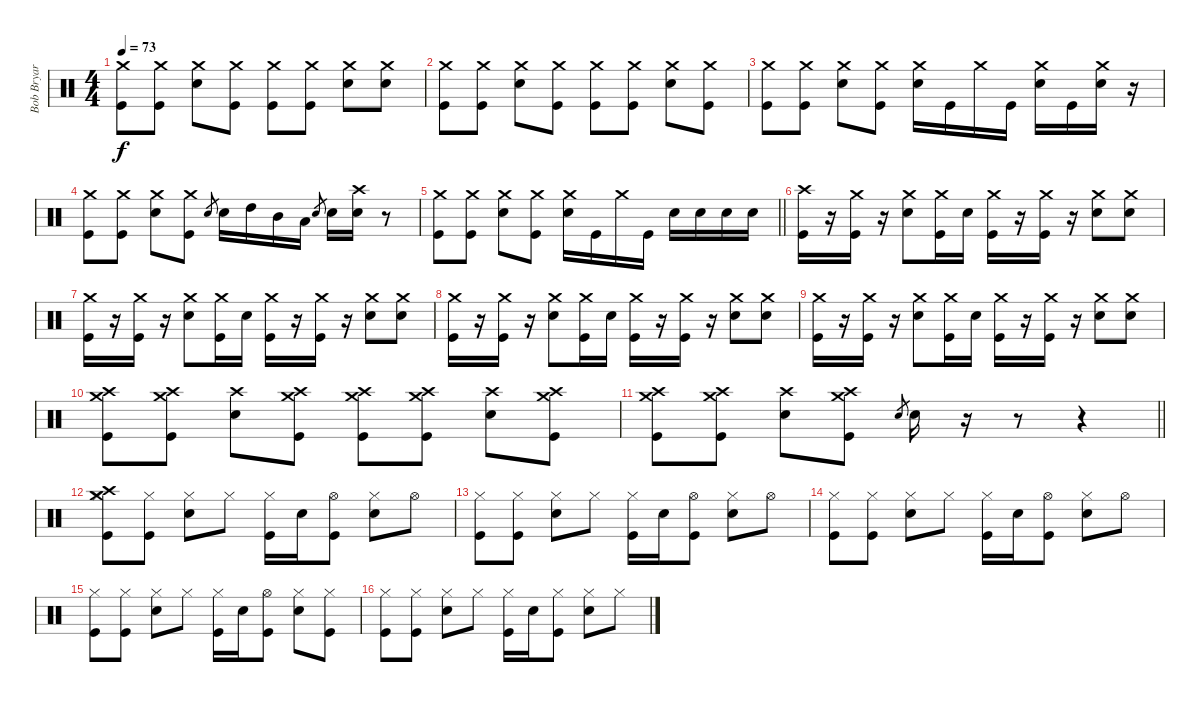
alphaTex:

\track ("Bob Bryar [Drums]" "Bob Bryar ") {instrument percussion}
\staff {score}
\articulation defaults
\ts (4 4)
\tempo 73
\clef neutral
\ks c
("Crash medium (hit)" "Kick (hit)").8{dy f} ("Crash medium (hit)" "Kick (hit)").8 ("Crash medium (hit)" "Snare (hit) 2").8 ("Crash medium (hit)" "Kick (hit)").8 ("Crash medium (hit)" "Kick (hit)").8 ("Crash medium (hit)" "Kick (hit)").8 ("Crash medium (hit)" "Snare (hit) 2").8 ("Crash medium (hit)" "Snare (hit) 2").8 |
("Crash medium (hit)" "Kick (hit)").8 ("Crash medium (hit)" "Kick (hit)").8 ("Crash medium (hit)" "Snare (hit) 2").8 ("Crash medium (hit)" "Kick (hit)").8 ("Crash medium (hit)" "Kick (hit)").8 ("Crash medium (hit)" "Kick (hit)").8 ("Crash medium (hit)" "Snare (hit) 2").8 ("Crash medium (hit)" "Kick (hit)").8 |
("Crash medium (hit)" "Kick (hit)").8 ("Crash medium (hit)" "Kick (hit)").8 ("Crash medium (hit)" "Snare (hit) 2").8 ("Crash medium (hit)" "Kick (hit)").8 ("Crash medium (hit)" "Snare (hit) 2").16 "Kick (hit)".16 "Crash medium (hit)".16 "Kick (hit)".16 ("Crash medium (hit)" "Snare (hit) 2").16 "Kick (hit)".16 ("Crash medium (hit)" "Snare (hit) 2").16 r.16 |
("Crash medium (hit)" "Kick (hit)").8 ("Crash medium (hit)" "Kick (hit)").8 ("Crash medium (hit)" "Snare (hit) 2").8 ("Crash medium (hit)" "Kick (hit)").8 "Snare (hit) 2".8{gr} "Snare (hit) 2".16 "High Tom (hit)".16 "Mid Tom (hit)".16 "Low Tom (hit)".16 "Snare (hit) 2".8{gr} "Snare (hit) 2".16 ("Crash high (hit)" "Snare (hit) 2").16 r.8 |
\barLineRight lightlight
("Crash medium (hit)" "Kick (hit)").8 ("Crash medium (hit)" "Kick (hit)").8 ("Crash medium (hit)" "Snare (hit) 2").8 ("Crash medium (hit)" "Kick (hit)").8 ("Crash medium (hit)" "Snare (hit) 2").16 "Kick (hit)".16 "Crash medium (hit)".16 "Kick (hit)".16 "Snare (hit) 2".16 "Snare (hit) 2".16 "Snare (hit) 2".16 "Snare (hit) 2".16 |
("Crash high (hit)" "Kick (hit)").16 r.16 ("Crash medium (hit)" "Kick (hit)").16 r.16 ("Crash medium (hit)" "Snare (hit) 2").8 ("Crash medium (hit)" "Kick (hit)").16 "Snare (hit) 2".16 ("Crash medium (hit)" "Kick (hit)").16 r.16 ("Crash medium (hit)" "Kick (hit)").16 r.16 ("Crash medium (hit)" "Snare (hit) 2").8 ("Crash medium (hit)" "Snare (hit) 2").8 |
("Crash medium (hit)" "Kick (hit)").16 r.16 ("Crash medium (hit)" "Kick (hit)").16 r.16 ("Crash medium (hit)" "Snare (hit) 2").8 ("Crash medium (hit)" "Kick (hit)").16 "Snare (hit) 2".16 ("Crash medium (hit)" "Kick (hit)").16 r.16 ("Crash medium (hit)" "Kick (hit)").16 r.16 ("Crash medium (hit)" "Snare (hit) 2").8 ("Crash medium (hit)" "Snare (hit) 2").8 |
("Crash medium (hit)" "Kick (hit)").16 r.16 ("Crash medium (hit)" "Kick (hit)").16 r.16 ("Crash medium (hit)" "Snare (hit) 2").8 ("Crash medium (hit)" "Kick (hit)").16 "Snare (hit) 2".16 ("Crash medium (hit)" "Kick (hit)").16 r.16 ("Crash medium (hit)" "Kick (hit)").16 r.16 ("Crash medium (hit)" "Snare (hit) 2").8 ("Crash medium (hit)" "Snare (hit) 2").8 |
("Crash medium (hit)" "Kick (hit)").16 r.16 ("Crash medium (hit)" "Kick (hit)").16 r.16 ("Crash medium (hit)" "Snare (hit) 2").8 ("Crash medium (hit)" "Kick (hit)").16 "Snare (hit) 2".16 ("Crash medium (hit)" "Kick (hit)").16 r.16 ("Crash medium (hit)" "Kick (hit)").16 r.16 ("Crash medium (hit)" "Snare (hit) 2").8 ("Crash medium (hit)" "Snare (hit) 2").8 |
("Crash high (hit)" "Crash medium (hit)" "Kick (hit)").8 ("Crash high (hit)" "Crash medium (hit)" "Kick (hit)").8 ("Crash high (hit)" "Snare (hit) 2").8 ("Crash high (hit)" "Crash medium (hit)" "Kick (hit)").8 ("Crash high (hit)" "Crash medium (hit)" "Kick (hit)").8 ("Crash high (hit)" "Crash medium (hit)" "Kick (hit)").8 ("Crash high (hit)" "Snare (hit) 2").8 ("Crash high (hit)" "Crash medium (hit)" "Kick (hit)").8 |
\barLineRight lightlight
("Crash high (hit)" "Crash medium (hit)" "Kick (hit)").8 ("Crash high (hit)" "Crash medium (hit)" "Kick (hit)").8 ("Crash high (hit)" "Snare (hit) 2").8 ("Crash high (hit)" "Crash medium (hit)" "Kick (hit)").8 "Snare (hit) 2".8{gr} "Snare (hit) 2".16 r.16 r.8 r.4 |
("Crash high (hit)" "Crash medium (hit)" "Hi-Hat (closed)" "Kick (hit)").8 ("Hi-Hat (closed)" "Kick (hit)").8 ("Hi-Hat (closed)" "Snare (hit) 2").8 "Hi-Hat (closed)".8 ("Hi-Hat (closed)" "Kick (hit)").16 "Snare (hit) 2".16 ("Hi-Hat (open)" "Kick (hit)").8 ("Hi-Hat (closed)" "Snare (hit) 2").8 "Hi-Hat (open)".8 |
("Hi-Hat (closed)" "Kick (hit)").8 ("Hi-Hat (closed)" "Kick (hit)").8 ("Hi-Hat (closed)" "Snare (hit) 2").8 "Hi-Hat (closed)".8 ("Hi-Hat (closed)" "Kick (hit)").16 "Snare (hit) 2".16 ("Hi-Hat (open)" "Kick (hit)").8 ("Hi-Hat (closed)" "Snare (hit) 2").8 "Hi-Hat (open)".8 |
("Hi-Hat (closed)" "Kick (hit)").8 ("Hi-Hat (closed)" "Kick (hit)").8 ("Hi-Hat (closed)" "Snare (hit) 2").8 "Hi-Hat (closed)".8 ("Hi-Hat (closed)" "Kick (hit)").16 "Snare (hit) 2".16 ("Hi-Hat (open)" "Kick (hit)").8 ("Hi-Hat (closed)" "Snare (hit) 2").8 "Hi-Hat (open)".8 |
("Hi-Hat (closed)" "Kick (hit)").8 ("Hi-Hat (closed)" "Kick (hit)").8 ("Hi-Hat (closed)" "Snare (hit) 2").8 "Hi-Hat (closed)".8 ("Hi-Hat (closed)" "Kick (hit)").16 "Snare (hit) 2".16 ("Hi-Hat (open)" "Kick (hit)").8 ("Hi-Hat (closed)" "Snare (hit) 2").8 ("Hi-Hat (closed)" "Kick (hit)").8 |
("Hi-Hat (closed)" "Kick (hit)").8 ("Hi-Hat (closed)" "Kick (hit)").8 ("Hi-Hat (closed)" "Snare (hit) 2").8 "Hi-Hat (closed)".8 ("Hi-Hat (closed)" "Kick (hit)").16 "Snare (hit) 2".16 ("Hi-Hat (closed)" "Kick (hit)").8 ("Hi-Hat (closed)" "Snare (hit) 2").8 "Hi-Hat (closed)".8
